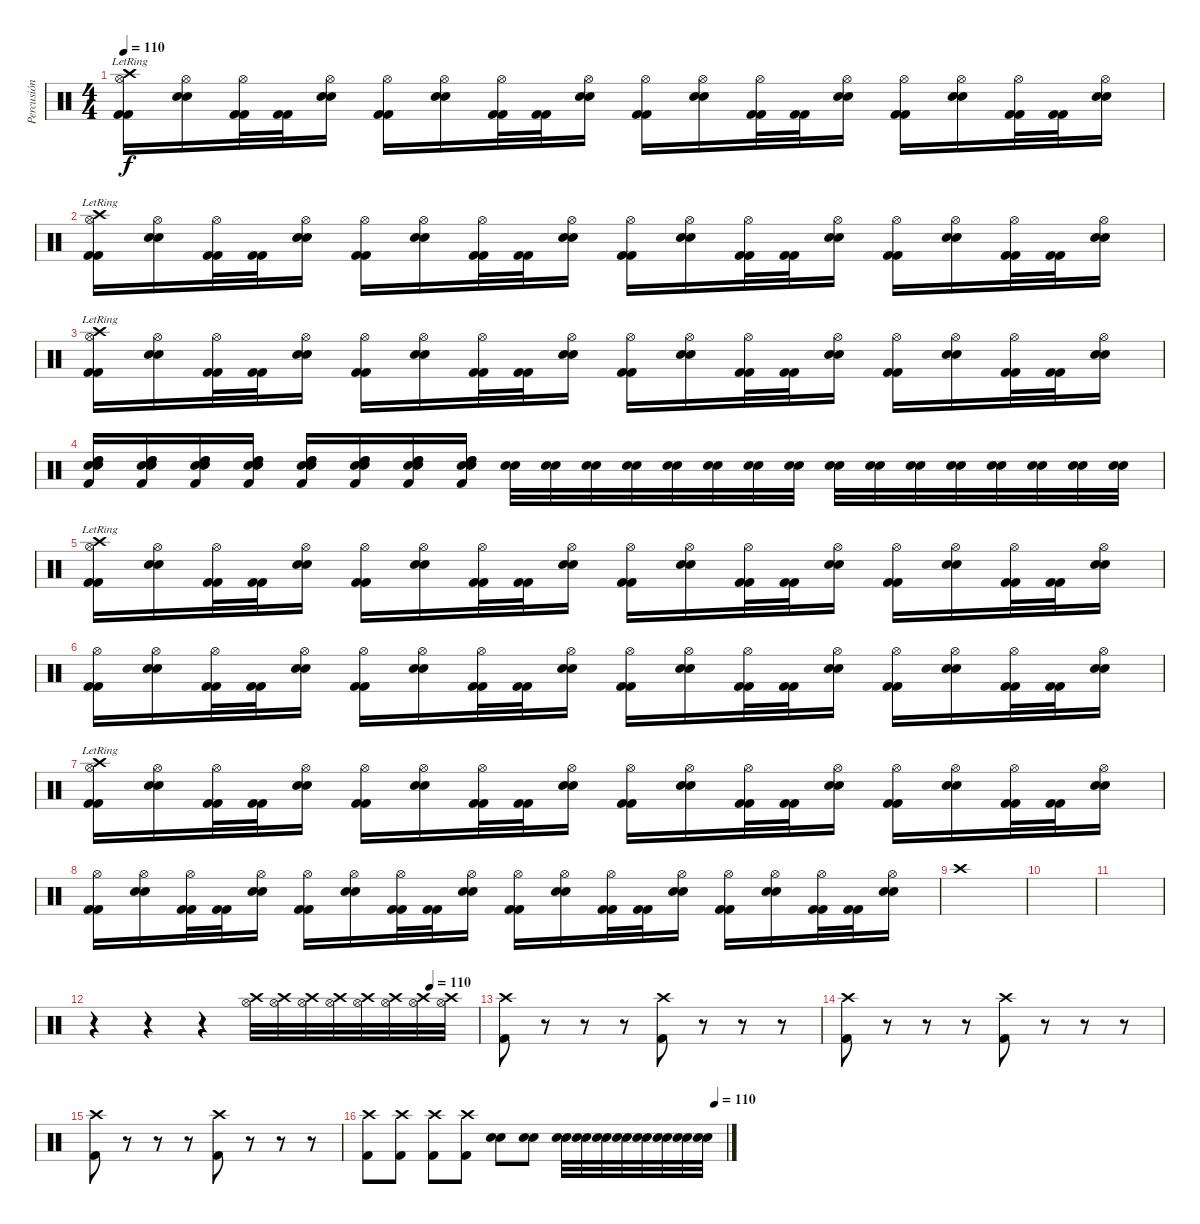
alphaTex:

\track ("Percusión" "Percusión") {instrument percussion}
\staff {score}
\articulation defaults
\ts (4 4)
\tempo 110
\clef neutral
\ks c
("Kick (hit) 2" "Kick (hit) 2" "Hi-Hat (open)" "Crash high (hit)"{lr}).16{dy f} ("Snare (hit) 2" "Snare (hit) 2" "Hi-Hat (open)").16 ("Kick (hit) 2" "Kick (hit) 2" "Hi-Hat (open)").32 ("Kick (hit) 2" "Kick (hit) 2").32 ("Snare (hit) 2" "Snare (hit) 2" "Hi-Hat (open)").16 ("Kick (hit) 2" "Kick (hit) 2" "Hi-Hat (open)").16 ("Snare (hit) 2" "Snare (hit) 2" "Hi-Hat (open)").16 ("Kick (hit) 2" "Kick (hit) 2" "Hi-Hat (open)").32 ("Kick (hit) 2" "Kick (hit) 2").32 ("Snare (hit) 2" "Snare (hit) 2" "Hi-Hat (open)").16 ("Kick (hit) 2" "Kick (hit) 2" "Hi-Hat (open)").16 ("Snare (hit) 2" "Snare (hit) 2" "Hi-Hat (open)").16 ("Kick (hit) 2" "Kick (hit) 2" "Hi-Hat (open)").32 ("Kick (hit) 2" "Kick (hit) 2").32 ("Snare (hit) 2" "Snare (hit) 2" "Hi-Hat (open)").16 ("Kick (hit) 2" "Kick (hit) 2" "Hi-Hat (open)").16 ("Snare (hit) 2" "Snare (hit) 2" "Hi-Hat (open)").16 ("Kick (hit) 2" "Kick (hit) 2" "Hi-Hat (open)").32 ("Kick (hit) 2" "Kick (hit) 2").32 ("Snare (hit) 2" "Snare (hit) 2" "Hi-Hat (open)").16 |
("Kick (hit) 2" "Kick (hit) 2" "Hi-Hat (open)" "Crash high (hit)"{lr}).16 ("Snare (hit) 2" "Snare (hit) 2" "Hi-Hat (open)").16 ("Kick (hit) 2" "Kick (hit) 2" "Hi-Hat (open)").32 ("Kick (hit) 2" "Kick (hit) 2").32 ("Snare (hit) 2" "Snare (hit) 2" "Hi-Hat (open)").16 ("Kick (hit) 2" "Kick (hit) 2" "Hi-Hat (open)").16 ("Snare (hit) 2" "Snare (hit) 2" "Hi-Hat (open)").16 ("Kick (hit) 2" "Kick (hit) 2" "Hi-Hat (open)").32 ("Kick (hit) 2" "Kick (hit) 2").32 ("Snare (hit) 2" "Snare (hit) 2" "Hi-Hat (open)").16 ("Kick (hit) 2" "Kick (hit) 2" "Hi-Hat (open)").16 ("Snare (hit) 2" "Snare (hit) 2" "Hi-Hat (open)").16 ("Kick (hit) 2" "Kick (hit) 2" "Hi-Hat (open)").32 ("Kick (hit) 2" "Kick (hit) 2").32 ("Snare (hit) 2" "Snare (hit) 2" "Hi-Hat (open)").16 ("Kick (hit) 2" "Kick (hit) 2" "Hi-Hat (open)").16 ("Snare (hit) 2" "Snare (hit) 2" "Hi-Hat (open)").16 ("Kick (hit) 2" "Kick (hit) 2" "Hi-Hat (open)").32 ("Kick (hit) 2" "Kick (hit) 2").32 ("Snare (hit) 2" "Snare (hit) 2" "Hi-Hat (open)").16 |
("Kick (hit) 2" "Kick (hit) 2" "Hi-Hat (open)" "Crash high (hit)"{lr}).16 ("Snare (hit) 2" "Snare (hit) 2" "Hi-Hat (open)").16 ("Kick (hit) 2" "Kick (hit) 2" "Hi-Hat (open)").32 ("Kick (hit) 2" "Kick (hit) 2").32 ("Snare (hit) 2" "Snare (hit) 2" "Hi-Hat (open)").16 ("Kick (hit) 2" "Kick (hit) 2" "Hi-Hat (open)").16 ("Snare (hit) 2" "Snare (hit) 2" "Hi-Hat (open)").16 ("Kick (hit) 2" "Kick (hit) 2" "Hi-Hat (open)").32 ("Kick (hit) 2" "Kick (hit) 2").32 ("Snare (hit) 2" "Snare (hit) 2" "Hi-Hat (open)").16 ("Kick (hit) 2" "Kick (hit) 2" "Hi-Hat (open)").16 ("Snare (hit) 2" "Snare (hit) 2" "Hi-Hat (open)").16 ("Kick (hit) 2" "Kick (hit) 2" "Hi-Hat (open)").32 ("Kick (hit) 2" "Kick (hit) 2").32 ("Snare (hit) 2" "Snare (hit) 2" "Hi-Hat (open)").16 ("Kick (hit) 2" "Kick (hit) 2" "Hi-Hat (open)").16 ("Snare (hit) 2" "Snare (hit) 2" "Hi-Hat (open)").16 ("Kick (hit) 2" "Kick (hit) 2" "Hi-Hat (open)").32 ("Kick (hit) 2" "Kick (hit) 2").32 ("Snare (hit) 2" "Snare (hit) 2" "Hi-Hat (open)").16 |
("Snare (hit) 2" "Snare (hit) 2" "High Tom (hit)" "High Tom (hit)" "Kick (hit) 2").16 ("Snare (hit) 2" "Snare (hit) 2" "High Tom (hit)" "High Tom (hit)" "Kick (hit) 2").16 ("Snare (hit) 2" "Snare (hit) 2" "High Tom (hit)" "High Tom (hit)" "Kick (hit) 2").16 ("Snare (hit) 2" "Snare (hit) 2" "High Tom (hit)" "High Tom (hit)" "Kick (hit) 2").16 ("Snare (hit) 2" "Snare (hit) 2" "High Tom (hit)" "High Tom (hit)" "Kick (hit) 2").16 ("Snare (hit) 2" "Snare (hit) 2" "High Tom (hit)" "High Tom (hit)" "Kick (hit) 2").16 ("Snare (hit) 2" "Snare (hit) 2" "High Tom (hit)" "High Tom (hit)" "Kick (hit) 2").16 ("Snare (hit) 2" "Snare (hit) 2" "High Tom (hit)" "High Tom (hit)" "Kick (hit) 2").16 ("Snare (hit) 2" "Snare (hit) 2").32 ("Snare (hit) 2" "Snare (hit) 2").32 ("Snare (hit) 2" "Snare (hit) 2").32 ("Snare (hit) 2" "Snare (hit) 2").32 ("Snare (hit) 2" "Snare (hit) 2").32 ("Snare (hit) 2" "Snare (hit) 2").32 ("Snare (hit) 2" "Snare (hit) 2").32 ("Snare (hit) 2" "Snare (hit) 2").32 ("Snare (hit) 2" "Snare (hit) 2").32 ("Snare (hit) 2" "Snare (hit) 2").32 ("Snare (hit) 2" "Snare (hit) 2").32 ("Snare (hit) 2" "Snare (hit) 2").32 ("Snare (hit) 2" "Snare (hit) 2").32 ("Snare (hit) 2" "Snare (hit) 2").32 ("Snare (hit) 2" "Snare (hit) 2").32 ("Snare (hit) 2" "Snare (hit) 2").32 |
("Kick (hit) 2" "Kick (hit) 2" "Hi-Hat (open)" "Crash high (hit)"{lr}).16 ("Snare (hit) 2" "Snare (hit) 2" "Hi-Hat (open)").16 ("Kick (hit) 2" "Kick (hit) 2" "Hi-Hat (open)").32 ("Kick (hit) 2" "Kick (hit) 2").32 ("Snare (hit) 2" "Snare (hit) 2" "Hi-Hat (open)").16 ("Kick (hit) 2" "Kick (hit) 2" "Hi-Hat (open)").16 ("Snare (hit) 2" "Snare (hit) 2" "Hi-Hat (open)").16 ("Kick (hit) 2" "Kick (hit) 2" "Hi-Hat (open)").32 ("Kick (hit) 2" "Kick (hit) 2").32 ("Snare (hit) 2" "Snare (hit) 2" "Hi-Hat (open)").16 ("Kick (hit) 2" "Kick (hit) 2" "Hi-Hat (open)").16 ("Snare (hit) 2" "Snare (hit) 2" "Hi-Hat (open)").16 ("Kick (hit) 2" "Kick (hit) 2" "Hi-Hat (open)").32 ("Kick (hit) 2" "Kick (hit) 2").32 ("Snare (hit) 2" "Snare (hit) 2" "Hi-Hat (open)").16 ("Kick (hit) 2" "Kick (hit) 2" "Hi-Hat (open)").16 ("Snare (hit) 2" "Snare (hit) 2" "Hi-Hat (open)").16 ("Kick (hit) 2" "Kick (hit) 2" "Hi-Hat (open)").32 ("Kick (hit) 2" "Kick (hit) 2").32 ("Snare (hit) 2" "Snare (hit) 2" "Hi-Hat (open)").16 |
("Kick (hit) 2" "Kick (hit) 2" "Hi-Hat (open)").16 ("Snare (hit) 2" "Snare (hit) 2" "Hi-Hat (open)").16 ("Kick (hit) 2" "Kick (hit) 2" "Hi-Hat (open)").32 ("Kick (hit) 2" "Kick (hit) 2").32 ("Snare (hit) 2" "Snare (hit) 2" "Hi-Hat (open)").16 ("Kick (hit) 2" "Kick (hit) 2" "Hi-Hat (open)").16 ("Snare (hit) 2" "Snare (hit) 2" "Hi-Hat (open)").16 ("Kick (hit) 2" "Kick (hit) 2" "Hi-Hat (open)").32 ("Kick (hit) 2" "Kick (hit) 2").32 ("Snare (hit) 2" "Snare (hit) 2" "Hi-Hat (open)").16 ("Kick (hit) 2" "Kick (hit) 2" "Hi-Hat (open)").16 ("Snare (hit) 2" "Snare (hit) 2" "Hi-Hat (open)").16 ("Kick (hit) 2" "Kick (hit) 2" "Hi-Hat (open)").32 ("Kick (hit) 2" "Kick (hit) 2").32 ("Snare (hit) 2" "Snare (hit) 2" "Hi-Hat (open)").16 ("Kick (hit) 2" "Kick (hit) 2" "Hi-Hat (open)").16 ("Snare (hit) 2" "Snare (hit) 2" "Hi-Hat (open)").16 ("Kick (hit) 2" "Kick (hit) 2" "Hi-Hat (open)").32 ("Kick (hit) 2" "Kick (hit) 2").32 ("Snare (hit) 2" "Snare (hit) 2" "Hi-Hat (open)").16 |
("Kick (hit) 2" "Kick (hit) 2" "Hi-Hat (open)" "Crash high (hit)"{lr}).16 ("Snare (hit) 2" "Snare (hit) 2" "Hi-Hat (open)").16 ("Kick (hit) 2" "Kick (hit) 2" "Hi-Hat (open)").32 ("Kick (hit) 2" "Kick (hit) 2").32 ("Snare (hit) 2" "Snare (hit) 2" "Hi-Hat (open)").16 ("Kick (hit) 2" "Kick (hit) 2" "Hi-Hat (open)").16 ("Snare (hit) 2" "Snare (hit) 2" "Hi-Hat (open)").16 ("Kick (hit) 2" "Kick (hit) 2" "Hi-Hat (open)").32 ("Kick (hit) 2" "Kick (hit) 2").32 ("Snare (hit) 2" "Snare (hit) 2" "Hi-Hat (open)").16 ("Kick (hit) 2" "Kick (hit) 2" "Hi-Hat (open)").16 ("Snare (hit) 2" "Snare (hit) 2" "Hi-Hat (open)").16 ("Kick (hit) 2" "Kick (hit) 2" "Hi-Hat (open)").32 ("Kick (hit) 2" "Kick (hit) 2").32 ("Snare (hit) 2" "Snare (hit) 2" "Hi-Hat (open)").16 ("Kick (hit) 2" "Kick (hit) 2" "Hi-Hat (open)").16 ("Snare (hit) 2" "Snare (hit) 2" "Hi-Hat (open)").16 ("Kick (hit) 2" "Kick (hit) 2" "Hi-Hat (open)").32 ("Kick (hit) 2" "Kick (hit) 2").32 ("Snare (hit) 2" "Snare (hit) 2" "Hi-Hat (open)").16 |
("Kick (hit) 2" "Kick (hit) 2" "Hi-Hat (open)").16 ("Snare (hit) 2" "Snare (hit) 2" "Hi-Hat (open)").16 ("Kick (hit) 2" "Kick (hit) 2" "Hi-Hat (open)").32 ("Kick (hit) 2" "Kick (hit) 2").32 ("Snare (hit) 2" "Snare (hit) 2" "Hi-Hat (open)").16 ("Kick (hit) 2" "Kick (hit) 2" "Hi-Hat (open)").16 ("Snare (hit) 2" "Snare (hit) 2" "Hi-Hat (open)").16 ("Kick (hit) 2" "Kick (hit) 2" "Hi-Hat (open)").32 ("Kick (hit) 2" "Kick (hit) 2").32 ("Snare (hit) 2" "Snare (hit) 2" "Hi-Hat (open)").16 ("Kick (hit) 2" "Kick (hit) 2" "Hi-Hat (open)").16 ("Snare (hit) 2" "Snare (hit) 2" "Hi-Hat (open)").16 ("Kick (hit) 2" "Kick (hit) 2" "Hi-Hat (open)").32 ("Kick (hit) 2" "Kick (hit) 2").32 ("Snare (hit) 2" "Snare (hit) 2" "Hi-Hat (open)").16 ("Kick (hit) 2" "Kick (hit) 2" "Hi-Hat (open)").16 ("Snare (hit) 2" "Snare (hit) 2" "Hi-Hat (open)").16 ("Kick (hit) 2" "Kick (hit) 2" "Hi-Hat (open)").32 ("Kick (hit) 2" "Kick (hit) 2").32 ("Snare (hit) 2" "Snare (hit) 2" "Hi-Hat (open)").16 |
"Crash high (hit)".1 |
|
|
\tempo (110 0.875)
r.4 r.4 r.4 ("Crash high (hit)" "Hi-Hat (open)").32 ("Crash high (hit)" "Hi-Hat (open)").32 ("Crash high (hit)" "Hi-Hat (open)").32 ("Crash high (hit)" "Hi-Hat (open)").32 ("Crash high (hit)" "Hi-Hat (open)").32 ("Crash high (hit)" "Hi-Hat (open)").32 ("Crash high (hit)" "Hi-Hat (open)").32 ("Crash high (hit)" "Hi-Hat (open)").32 |
("Crash high (hit)" "Kick (hit) 2").8 r.8 r.8 r.8 ("Crash high (hit)" "Kick (hit) 2").8 r.8 r.8 r.8 |
("Crash high (hit)" "Kick (hit) 2").8 r.8 r.8 r.8 ("Crash high (hit)" "Kick (hit) 2").8 r.8 r.8 r.8 |
("Crash high (hit)" "Kick (hit) 2").8 r.8 r.8 r.8 ("Crash high (hit)" "Kick (hit) 2").8 r.8 r.8 r.8 |
\tempo (110 0.96875)
("Crash high (hit)" "Kick (hit) 2").8 ("Crash high (hit)" "Kick (hit) 2").8 ("Crash high (hit)" "Kick (hit) 2").8 ("Crash high (hit)" "Kick (hit) 2").8 ("Snare (hit) 2" "Snare (hit) 2").8 ("Snare (hit) 2" "Snare (hit) 2").8 ("Snare (hit) 2" "Snare (hit) 2").32 ("Snare (hit) 2" "Snare (hit) 2").32 ("Snare (hit) 2" "Snare (hit) 2").32 ("Snare (hit) 2" "Snare (hit) 2").32 ("Snare (hit) 2" "Snare (hit) 2").32 ("Snare (hit) 2" "Snare (hit) 2").32 ("Snare (hit) 2" "Snare (hit) 2").32 ("Snare (hit) 2" "Snare (hit) 2").32
